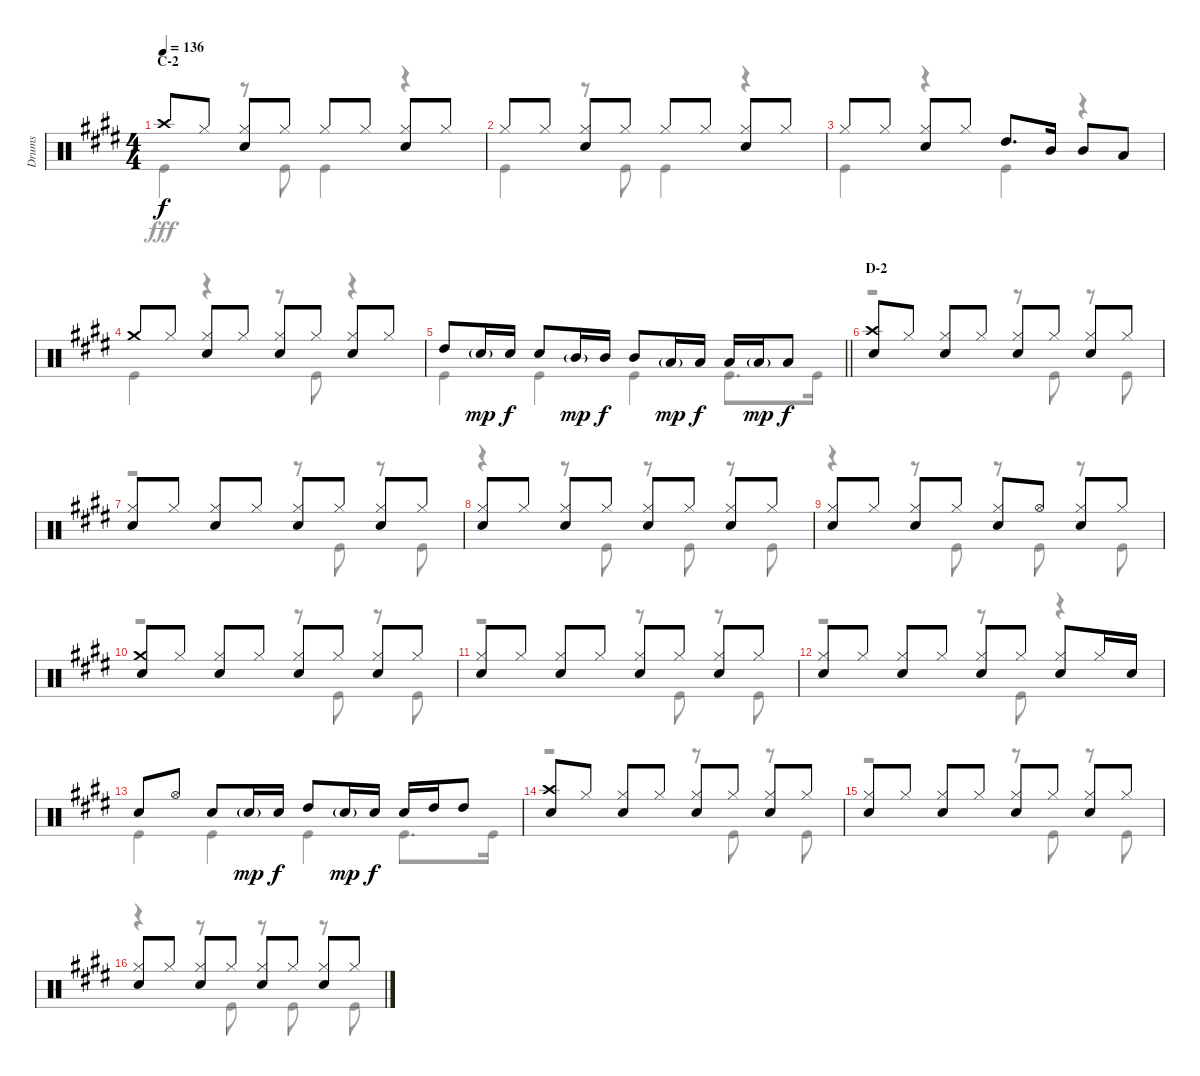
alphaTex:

\track ("Drums" "Drums") {instrument percussion}
\staff {score}
\articulation defaults
\voice
\ts (4 4)
\section ("" "C-2")
\tempo 136
\clef neutral
\ks e "Crash high (hit)".8{dy f} "Hi-Hat (closed)".8
("Hi-Hat (closed)" "Snare (hit) 2").8 "Hi-Hat (closed)".8 "Hi-Hat (closed)".8 "Hi-Hat (closed)".8 ("Hi-Hat (closed)" "Snare (hit) 2").8 "Hi-Hat (closed)".8 |
"Hi-Hat (closed)".8 "Hi-Hat (closed)".8 ("Hi-Hat (closed)" "Snare (hit) 2").8 "Hi-Hat (closed)".8 "Hi-Hat (closed)".8 "Hi-Hat (closed)".8 ("Hi-Hat (closed)" "Snare (hit) 2").8 "Hi-Hat (closed)".8 |
"Hi-Hat (closed)".8 "Hi-Hat (closed)".8 ("Hi-Hat (closed)" "Snare (hit) 2").8 "Hi-Hat (closed)".8 "High Tom (hit)".8{d} "Mid Tom (hit)".16 "Mid Tom (hit)".8 "Low Tom (hit)".8 |
"Crash medium (hit)".8 "Hi-Hat (closed)".8 ("Hi-Hat (closed)" "Snare (hit) 2").8 "Hi-Hat (closed)".8 ("Hi-Hat (closed)" "Snare (hit) 2").8 "Hi-Hat (closed)".8 ("Hi-Hat (closed)" "Snare (hit) 2").8 "Hi-Hat (closed)".8 |
\barLineRight lightlight "High Tom (hit)".8 "Snare (hit) 2"{g}.16{dy mp} "Snare (hit) 2".16{dy f} "Snare (hit) 2".8 "Mid Tom (hit)"{g}.16{dy mp} "Mid Tom (hit)".16{dy f} "Mid Tom (hit)".8 "Low Tom (hit)"{g}.16{dy mp} "Low Tom (hit)".16{dy f} "Low Tom (hit)".16 "Low Tom (hit)"{g}.16{dy mp} "Low Tom (hit)".8{dy f}
|
\section ("" "D-2")
("Crash high (hit)" "Snare (hit) 2").8 "Hi-Hat (closed)".8 ("Hi-Hat (closed)" "Snare (hit) 2").8 "Hi-Hat (closed)".8 ("Hi-Hat (closed)" "Snare (hit) 2").8 "Hi-Hat (closed)".8 ("Hi-Hat (closed)" "Snare (hit) 2").8 "Hi-Hat (closed)".8 |
("Hi-Hat (closed)" "Snare (hit) 2").8 "Hi-Hat (closed)".8 ("Hi-Hat (closed)" "Snare (hit) 2").8 "Hi-Hat (closed)".8 ("Hi-Hat (closed)" "Snare (hit) 2").8 "Hi-Hat (closed)".8 ("Hi-Hat (closed)" "Snare (hit) 2").8 "Hi-Hat (closed)".8 |
("Hi-Hat (closed)" "Snare (hit) 2").8 "Hi-Hat (closed)".8 ("Hi-Hat (closed)" "Snare (hit) 2").8 "Hi-Hat (closed)".8 ("Hi-Hat (closed)" "Snare (hit) 2").8 "Hi-Hat (closed)".8 ("Hi-Hat (closed)" "Snare (hit) 2").8 "Hi-Hat (closed)".8 |
("Hi-Hat (closed)" "Snare (hit) 2").8 "Hi-Hat (closed)".8 ("Hi-Hat (closed)" "Snare (hit) 2").8 "Hi-Hat (closed)".8 ("Hi-Hat (closed)" "Snare (hit) 2").8 "Hi-Hat (open)".8 ("Hi-Hat (closed)" "Snare (hit) 2").8 "Hi-Hat (closed)".8 |
("Crash medium (hit)" "Snare (hit) 2").8 "Hi-Hat (closed)".8 ("Hi-Hat (closed)" "Snare (hit) 2").8 "Hi-Hat (closed)".8 ("Hi-Hat (closed)" "Snare (hit) 2").8 "Hi-Hat (closed)".8 ("Hi-Hat (closed)" "Snare (hit) 2").8 "Hi-Hat (closed)".8 |
("Hi-Hat (closed)" "Snare (hit) 2").8 "Hi-Hat (closed)".8 ("Hi-Hat (closed)" "Snare (hit) 2").8 "Hi-Hat (closed)".8 ("Hi-Hat (closed)" "Snare (hit) 2").8 "Hi-Hat (closed)".8 ("Hi-Hat (closed)" "Snare (hit) 2").8 "Hi-Hat (closed)".8 |
("Hi-Hat (closed)" "Snare (hit) 2").8 "Hi-Hat (closed)".8 ("Hi-Hat (closed)" "Snare (hit) 2").8 "Hi-Hat (closed)".8 ("Hi-Hat (closed)" "Snare (hit) 2").8 "Hi-Hat (closed)".8 ("Hi-Hat (closed)" "Snare (hit) 2").8 "Hi-Hat (closed)".16 "Snare (hit) 2".16 |
"Snare (hit) 2".8 "Hi-Hat (open)".8 "Snare (hit) 2".8 "Snare (hit) 2"{g}.16{dy mp} "Snare (hit) 2".16{dy f} "High Tom (hit)".8 "Snare (hit) 2"{g}.16{dy mp} "Snare (hit) 2".16{dy f} "Snare (hit) 2".16 "High Tom (hit)".16 "High Tom (hit)".8 |
("Crash high (hit)" "Snare (hit) 2").8 "Hi-Hat (closed)".8 ("Hi-Hat (closed)" "Snare (hit) 2").8 "Hi-Hat (closed)".8 ("Hi-Hat (closed)" "Snare (hit) 2").8 "Hi-Hat (closed)".8 ("Hi-Hat (closed)" "Snare (hit) 2").8 "Hi-Hat (closed)".8 |
("Hi-Hat (closed)" "Snare (hit) 2").8 "Hi-Hat (closed)".8 ("Hi-Hat (closed)" "Snare (hit) 2").8 "Hi-Hat (closed)".8 ("Hi-Hat (closed)" "Snare (hit) 2").8 "Hi-Hat (closed)".8 ("Hi-Hat (closed)" "Snare (hit) 2").8 "Hi-Hat (closed)".8 |
("Hi-Hat (closed)" "Snare (hit) 2").8 "Hi-Hat (closed)".8 ("Hi-Hat (closed)" "Snare (hit) 2").8 "Hi-Hat (closed)".8 ("Hi-Hat (closed)" "Snare (hit) 2").8 "Hi-Hat (closed)".8 ("Hi-Hat (closed)" "Snare (hit) 2").8 "Hi-Hat (closed)".8
\voice
\clef neutral
\ottava regular
\simile none
\ks e "Kick (hit)".4{dy fff}
r.8 "Kick (hit)".8 "Kick (hit)".4 r.4 |
"Kick (hit)".4 r.8 "Kick (hit)".8 "Kick (hit)".4 r.4 |
"Kick (hit)".4 r.4 "Kick (hit)".4 r.4 |
"Kick (hit)".4 r.4 r.8 "Kick (hit)".8 r.4 |
\barLineRight lightlight "Kick (hit)".4 "Kick (hit)".4 "Kick (hit)".4 "Kick (hit)".8{d} "Kick (hit)".16
|
r.2 r.8 "Kick (hit)".8 r.8 "Kick (hit)".8 |
r.2 r.8 "Kick (hit)".8 r.8 "Kick (hit)".8 |
r.4 r.8 "Kick (hit)".8 r.8 "Kick (hit)".8 r.8 "Kick (hit)".8 |
r.4 r.8 "Kick (hit)".8 r.8 "Kick (hit)".8 r.8 "Kick (hit)".8 |
r.2 r.8 "Kick (hit)".8 r.8 "Kick (hit)".8 |
r.2 r.8 "Kick (hit)".8 r.8 "Kick (hit)".8 |
r.2 r.8 "Kick (hit)".8 r.4 |
"Kick (hit)".4 "Kick (hit)".4 "Kick (hit)".4 "Kick (hit)".8{d} "Kick (hit)".16 |
r.2 r.8 "Kick (hit)".8 r.8 "Kick (hit)".8 |
r.2 r.8 "Kick (hit)".8 r.8 "Kick (hit)".8 |
r.4 r.8 "Kick (hit)".8 r.8 "Kick (hit)".8 r.8 "Kick (hit)".8
